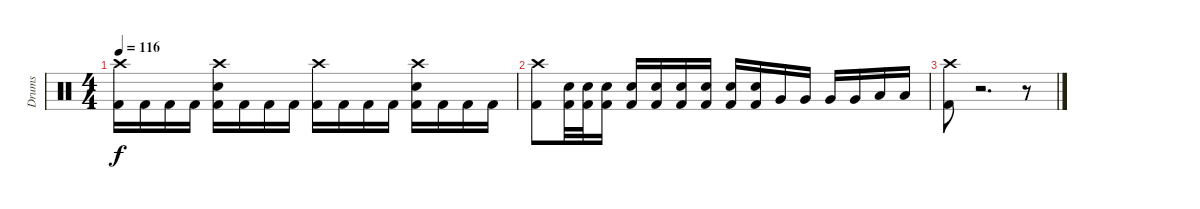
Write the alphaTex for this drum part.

\track ("Drums" "Drums") {instrument percussion}
\staff {score}
\articulation defaults
\ts (4 4)
\tempo 116
\clef neutral
\ks c
("Crash high (hit)" "Kick (hit) 2").16{dy f} "Kick (hit) 2".16 "Kick (hit) 2".16 "Kick (hit) 2".16 ("Crash high (hit)" "Electric Snare (hit)" "Kick (hit) 2").16 "Kick (hit) 2".16 "Kick (hit) 2".16 "Kick (hit) 2".16 ("Crash high (hit)" "Kick (hit) 2").16 "Kick (hit) 2".16 "Kick (hit) 2".16 "Kick (hit) 2".16 ("Crash high (hit)" "Electric Snare (hit)" "Kick (hit) 2").16 "Kick (hit) 2".16 "Kick (hit) 2".16 "Kick (hit) 2".16 |
("Crash high (hit)" "Kick (hit) 2").8 ("Electric Snare (hit)" "Kick (hit) 2").32 ("Electric Snare (hit)" "Kick (hit) 2").32 ("Electric Snare (hit)" "Kick (hit) 2").16 ("Electric Snare (hit)" "Kick (hit) 2").16 ("Electric Snare (hit)" "Kick (hit) 2").16 ("Electric Snare (hit)" "Kick (hit) 2").16 ("Electric Snare (hit)" "Kick (hit) 2").16 ("Electric Snare (hit)" "Kick (hit) 2").16 ("Electric Snare (hit)" "Kick (hit) 2").16 "Very Low Tom (hit)".16 "Very Low Tom (hit)".16 "Very Low Tom (hit)".16 "Very Low Tom (hit)".16 "Low Floor Tom (hit)".16 "Low Floor Tom (hit)".16 |
("Crash high (hit)" "Kick (hit) 2").8 r.2{d volume 0} r.8
